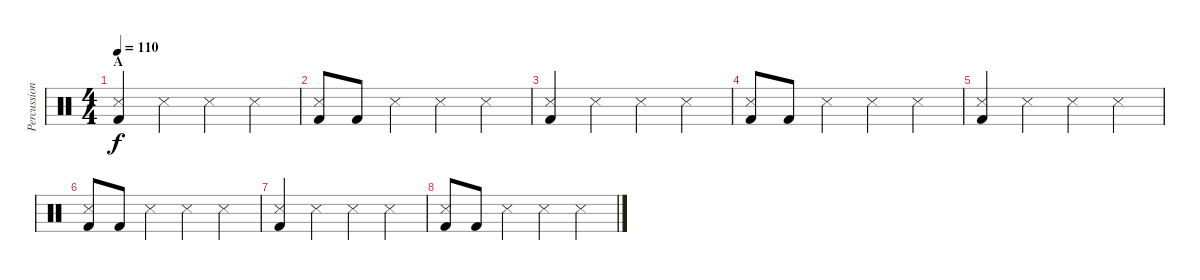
\track ("Percussion" "Percussion") {instrument percussion}
\staff {score}
\articulation defaults
\ts (4 4)
\section ("" "A")
\tempo 110
\clef neutral
\ks c
("Metronome (hit)" "Kick (hit) 2").4{dy f} "Metronome (hit)".4 "Metronome (hit)".4 "Metronome (hit)".4 |
("Metronome (hit)" "Kick (hit) 2").8 "Kick (hit) 2".8 "Metronome (hit)".4 "Metronome (hit)".4 "Metronome (hit)".4 |
("Metronome (hit)" "Kick (hit) 2").4 "Metronome (hit)".4 "Metronome (hit)".4 "Metronome (hit)".4 |
("Metronome (hit)" "Kick (hit) 2").8 "Kick (hit) 2".8 "Metronome (hit)".4 "Metronome (hit)".4 "Metronome (hit)".4 |
("Metronome (hit)" "Kick (hit) 2").4 "Metronome (hit)".4 "Metronome (hit)".4 "Metronome (hit)".4 |
("Metronome (hit)" "Kick (hit) 2").8 "Kick (hit) 2".8 "Metronome (hit)".4 "Metronome (hit)".4 "Metronome (hit)".4 |
("Metronome (hit)" "Kick (hit) 2").4 "Metronome (hit)".4 "Metronome (hit)".4 "Metronome (hit)".4 |
("Metronome (hit)" "Kick (hit) 2").8 "Kick (hit) 2".8 "Metronome (hit)".4 "Metronome (hit)".4 "Metronome (hit)".4
